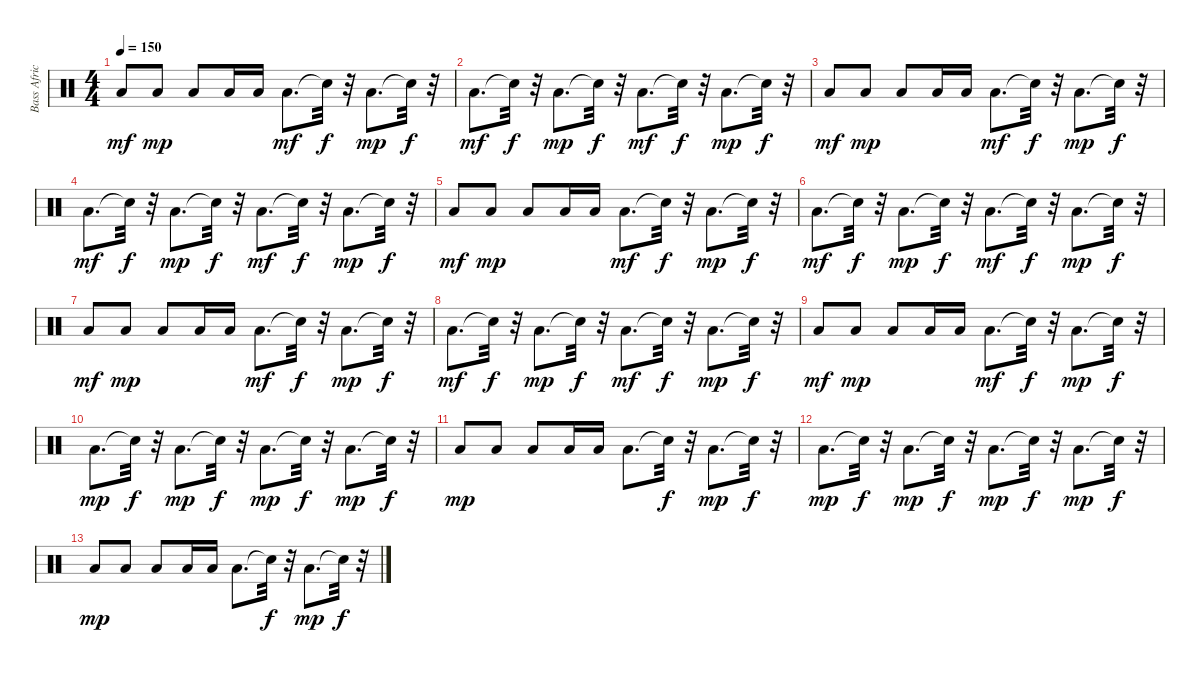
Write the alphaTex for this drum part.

\track ("Bass African Drum" "Bass Afric") {instrument percussion}
\staff {score}
\articulation defaults
\ts (4 4)
\tempo 150
\clef neutral
\ks c "Low Floor Tom (hit)".8{dy mf} "Low Floor Tom (hit)".8{dy mp} "Low Floor Tom (hit)".8 "Low Floor Tom (hit)".16 "Low Floor Tom (hit)".16 "Low Floor Tom (hit)".8{d dy mf} "Snare (hit)"{t}.32{dy f}
r.32 "Low Floor Tom (hit)".8{d dy mp} "Snare (hit)"{t}.32{dy f} r.32 |
"Low Floor Tom (hit)".8{d dy mf} "Snare (hit)"{t}.32{dy f} r.32 "Low Floor Tom (hit)".8{d dy mp} "Snare (hit)"{t}.32{dy f} r.32 "Low Floor Tom (hit)".8{d dy mf} "Snare (hit)"{t}.32{dy f} r.32 "Low Floor Tom (hit)".8{d dy mp} "Snare (hit)"{t}.32{dy f} r.32 |
"Low Floor Tom (hit)".8{dy mf} "Low Floor Tom (hit)".8{dy mp} "Low Floor Tom (hit)".8 "Low Floor Tom (hit)".16 "Low Floor Tom (hit)".16 "Low Floor Tom (hit)".8{d dy mf} "Snare (hit)"{t}.32{dy f} r.32 "Low Floor Tom (hit)".8{d dy mp} "Snare (hit)"{t}.32{dy f} r.32 |
"Low Floor Tom (hit)".8{d dy mf} "Snare (hit)"{t}.32{dy f} r.32 "Low Floor Tom (hit)".8{d dy mp} "Snare (hit)"{t}.32{dy f} r.32 "Low Floor Tom (hit)".8{d dy mf} "Snare (hit)"{t}.32{dy f} r.32 "Low Floor Tom (hit)".8{d dy mp} "Snare (hit)"{t}.32{dy f} r.32 |
"Low Floor Tom (hit)".8{dy mf} "Low Floor Tom (hit)".8{dy mp} "Low Floor Tom (hit)".8 "Low Floor Tom (hit)".16 "Low Floor Tom (hit)".16 "Low Floor Tom (hit)".8{d dy mf} "Snare (hit)"{t}.32{dy f} r.32 "Low Floor Tom (hit)".8{d dy mp} "Snare (hit)"{t}.32{dy f} r.32 |
"Low Floor Tom (hit)".8{d dy mf} "Snare (hit)"{t}.32{dy f} r.32 "Low Floor Tom (hit)".8{d dy mp} "Snare (hit)"{t}.32{dy f} r.32 "Low Floor Tom (hit)".8{d dy mf} "Snare (hit)"{t}.32{dy f} r.32 "Low Floor Tom (hit)".8{d dy mp} "Snare (hit)"{t}.32{dy f} r.32 |
"Low Floor Tom (hit)".8{dy mf} "Low Floor Tom (hit)".8{dy mp} "Low Floor Tom (hit)".8 "Low Floor Tom (hit)".16 "Low Floor Tom (hit)".16 "Low Floor Tom (hit)".8{d dy mf} "Snare (hit)"{t}.32{dy f} r.32 "Low Floor Tom (hit)".8{d dy mp} "Snare (hit)"{t}.32{dy f} r.32 |
"Low Floor Tom (hit)".8{d dy mf} "Snare (hit)"{t}.32{dy f} r.32 "Low Floor Tom (hit)".8{d dy mp} "Snare (hit)"{t}.32{dy f} r.32 "Low Floor Tom (hit)".8{d dy mf} "Snare (hit)"{t}.32{dy f} r.32 "Low Floor Tom (hit)".8{d dy mp} "Snare (hit)"{t}.32{dy f} r.32 |
"Low Floor Tom (hit)".8{dy mf} "Low Floor Tom (hit)".8{dy mp} "Low Floor Tom (hit)".8 "Low Floor Tom (hit)".16 "Low Floor Tom (hit)".16 "Low Floor Tom (hit)".8{d dy mf} "Snare (hit)"{t}.32{dy f} r.32 "Low Floor Tom (hit)".8{d dy mp} "Snare (hit)"{t}.32{dy f} r.32 |
"Low Floor Tom (hit)".8{d dy mp} "Snare (hit)"{t}.32{dy f} r.32 "Low Floor Tom (hit)".8{d dy mp} "Snare (hit)"{t}.32{dy f} r.32 "Low Floor Tom (hit)".8{d dy mp} "Snare (hit)"{t}.32{dy f} r.32 "Low Floor Tom (hit)".8{d dy mp} "Snare (hit)"{t}.32{dy f} r.32 |
"Low Floor Tom (hit)".8{dy mp} "Low Floor Tom (hit)".8 "Low Floor Tom (hit)".8 "Low Floor Tom (hit)".16 "Low Floor Tom (hit)".16 "Low Floor Tom (hit)".8{d} "Snare (hit)"{t}.32{dy f} r.32 "Low Floor Tom (hit)".8{d dy mp} "Snare (hit)"{t}.32{dy f} r.32 |
"Low Floor Tom (hit)".8{d dy mp} "Snare (hit)"{t}.32{dy f} r.32 "Low Floor Tom (hit)".8{d dy mp} "Snare (hit)"{t}.32{dy f} r.32 "Low Floor Tom (hit)".8{d dy mp} "Snare (hit)"{t}.32{dy f} r.32 "Low Floor Tom (hit)".8{d dy mp} "Snare (hit)"{t}.32{dy f} r.32 |
"Low Floor Tom (hit)".8{dy mp} "Low Floor Tom (hit)".8 "Low Floor Tom (hit)".8 "Low Floor Tom (hit)".16 "Low Floor Tom (hit)".16 "Low Floor Tom (hit)".8{d} "Snare (hit)"{t}.32{dy f} r.32 "Low Floor Tom (hit)".8{d dy mp} "Snare (hit)"{t}.32{dy f} r.32
